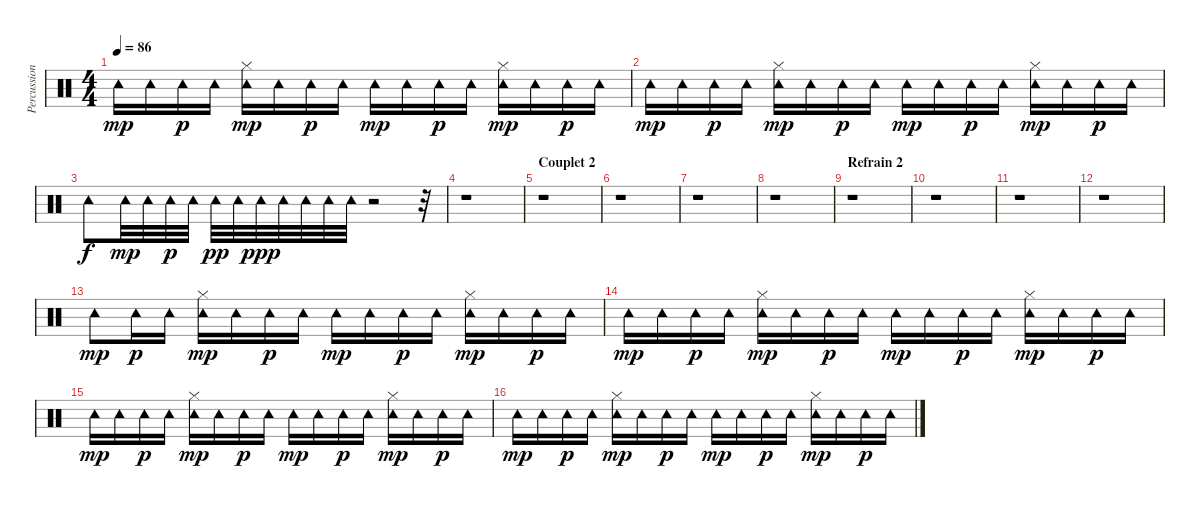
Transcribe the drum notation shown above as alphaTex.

\track ("Percussion" "Percussion") {instrument percussion}
\staff {score}
\articulation defaults
\ts (4 4)
\tempo 86
\clef neutral
\ks c "Tambourine (hit)".16{dy mp} "Tambourine (hit)".16 "Tambourine (hit)".16{dy p} "Tambourine (hit)".16
("Tambourine (hit)" "Hi-Hat (closed)").16{dy mp} "Tambourine (hit)".16 "Tambourine (hit)".16{dy p} "Tambourine (hit)".16 "Tambourine (hit)".16{dy mp} "Tambourine (hit)".16 "Tambourine (hit)".16{dy p} "Tambourine (hit)".16 ("Tambourine (hit)" "Hi-Hat (closed)").16{dy mp} "Tambourine (hit)".16 "Tambourine (hit)".16{dy p} "Tambourine (hit)".16 |
"Tambourine (hit)".16{dy mp} "Tambourine (hit)".16 "Tambourine (hit)".16{dy p} "Tambourine (hit)".16 ("Tambourine (hit)" "Hi-Hat (closed)").16{dy mp} "Tambourine (hit)".16 "Tambourine (hit)".16{dy p} "Tambourine (hit)".16 "Tambourine (hit)".16{dy mp} "Tambourine (hit)".16 "Tambourine (hit)".16{dy p} "Tambourine (hit)".16 ("Tambourine (hit)" "Hi-Hat (closed)").16{dy mp} "Tambourine (hit)".16 "Tambourine (hit)".16{dy p} "Tambourine (hit)".16 |
"Tambourine (hit)".8{dy f} "Tambourine (hit)".32{dy mp} "Tambourine (hit)".32 "Tambourine (hit)".32{dy p} "Tambourine (hit)".32 "Tambourine (hit)".32{dy pp} "Tambourine (hit)".32 "Tambourine (hit)".32{dy ppp} "Tambourine (hit)".32 "Tambourine (hit)".32 "Tambourine (hit)".32 "Tambourine (hit)".32 r.2 r.32 |
r.1 |
\section ("" "Couplet 2")
r.1 |
r.1 |
r.1 |
r.1 |
\section ("" "Refrain 2")
r.1 |
r.1 |
r.1 |
r.1 |
"Tambourine (hit)".8{dy mp} "Tambourine (hit)".16{dy p} "Tambourine (hit)".16 ("Tambourine (hit)" "Hi-Hat (closed)").16{dy mp} "Tambourine (hit)".16 "Tambourine (hit)".16{dy p} "Tambourine (hit)".16 "Tambourine (hit)".16{dy mp} "Tambourine (hit)".16 "Tambourine (hit)".16{dy p} "Tambourine (hit)".16 ("Tambourine (hit)" "Hi-Hat (closed)").16{dy mp} "Tambourine (hit)".16 "Tambourine (hit)".16{dy p} "Tambourine (hit)".16 |
"Tambourine (hit)".16{dy mp} "Tambourine (hit)".16 "Tambourine (hit)".16{dy p} "Tambourine (hit)".16 ("Tambourine (hit)" "Hi-Hat (closed)").16{dy mp} "Tambourine (hit)".16 "Tambourine (hit)".16{dy p} "Tambourine (hit)".16 "Tambourine (hit)".16{dy mp} "Tambourine (hit)".16 "Tambourine (hit)".16{dy p} "Tambourine (hit)".16 ("Tambourine (hit)" "Hi-Hat (closed)").16{dy mp} "Tambourine (hit)".16 "Tambourine (hit)".16{dy p} "Tambourine (hit)".16 |
"Tambourine (hit)".16{dy mp} "Tambourine (hit)".16 "Tambourine (hit)".16{dy p} "Tambourine (hit)".16 ("Tambourine (hit)" "Hi-Hat (closed)").16{dy mp} "Tambourine (hit)".16 "Tambourine (hit)".16{dy p} "Tambourine (hit)".16 "Tambourine (hit)".16{dy mp} "Tambourine (hit)".16 "Tambourine (hit)".16{dy p} "Tambourine (hit)".16 ("Tambourine (hit)" "Hi-Hat (closed)").16{dy mp} "Tambourine (hit)".16 "Tambourine (hit)".16{dy p} "Tambourine (hit)".16 |
"Tambourine (hit)".16{dy mp} "Tambourine (hit)".16 "Tambourine (hit)".16{dy p} "Tambourine (hit)".16 ("Tambourine (hit)" "Hi-Hat (closed)").16{dy mp} "Tambourine (hit)".16 "Tambourine (hit)".16{dy p} "Tambourine (hit)".16 "Tambourine (hit)".16{dy mp} "Tambourine (hit)".16 "Tambourine (hit)".16{dy p} "Tambourine (hit)".16 ("Tambourine (hit)" "Hi-Hat (closed)").16{dy mp} "Tambourine (hit)".16 "Tambourine (hit)".16{dy p} "Tambourine (hit)".16
